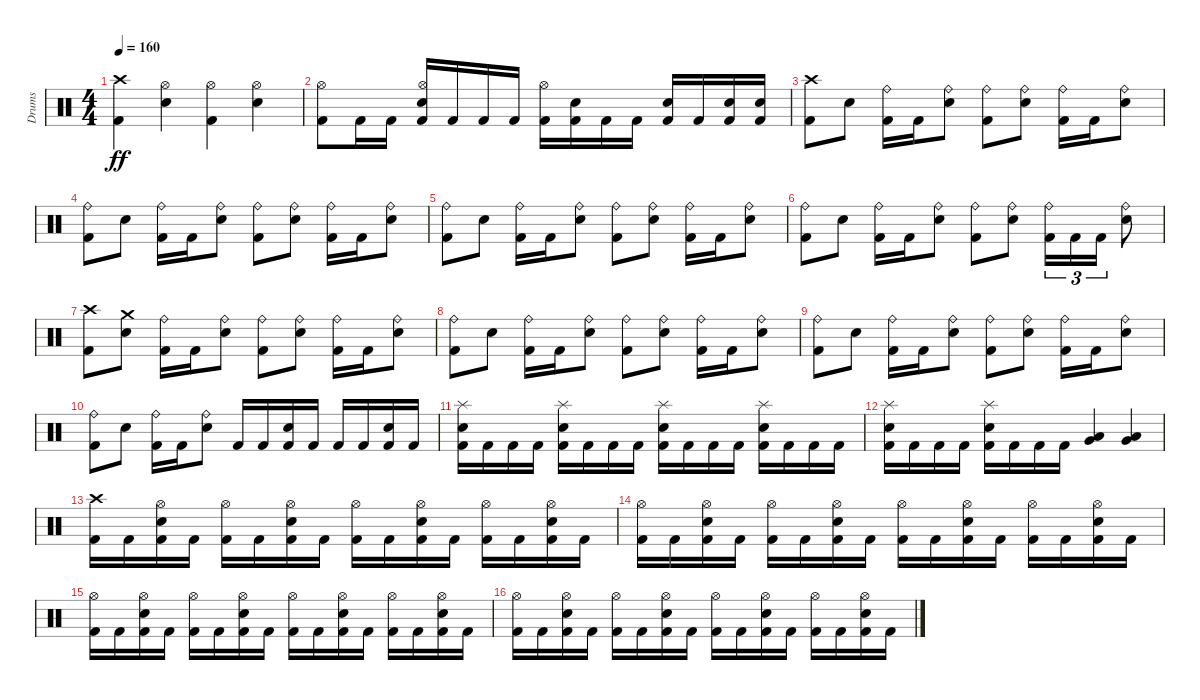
\track ("Drums" "Drums") {instrument percussion}
\staff {score}
\articulation defaults
\ts (4 4)
\tempo 160
\clef neutral
\ks c
("Crash high (hit)" "Kick (hit) 2").4{dy ff} ("Hi-Hat (open)" "Electric Snare (hit)").4 ("Hi-Hat (open)" "Kick (hit) 2").4 ("Hi-Hat (open)" "Electric Snare (hit)").4 |
("Hi-Hat (open)" "Kick (hit) 2").8 "Kick (hit) 2".16 "Kick (hit) 2".16 ("Hi-Hat (open)" "Electric Snare (hit)" "Kick (hit) 2").16 "Kick (hit) 2".16 "Kick (hit) 2".16 "Kick (hit) 2".16 ("Hi-Hat (open)" "Kick (hit) 2").16 ("Electric Snare (hit)" "Kick (hit) 2").16 "Kick (hit) 2".16 "Kick (hit) 2".16 ("Electric Snare (hit)" "Kick (hit) 2").16 "Kick (hit) 2".16 ("Electric Snare (hit)" "Kick (hit) 2").16 ("Electric Snare (hit)" "Kick (hit) 2").16 |
("Crash high (hit)" "Kick (hit) 2").8 "Electric Snare (hit)".8 ("Ride (bell)" "Kick (hit) 2").16 "Kick (hit) 2".16 ("Ride (bell)" "Electric Snare (hit)").8 ("Ride (bell)" "Kick (hit) 2").8 ("Ride (bell)" "Electric Snare (hit)").8 ("Ride (bell)" "Kick (hit) 2").16 "Kick (hit) 2".16 ("Ride (bell)" "Electric Snare (hit)").8 |
("Ride (bell)" "Kick (hit) 2").8 "Electric Snare (hit)".8 ("Ride (bell)" "Kick (hit) 2").16 "Kick (hit) 2".16 ("Ride (bell)" "Electric Snare (hit)").8 ("Ride (bell)" "Kick (hit) 2").8 ("Ride (bell)" "Electric Snare (hit)").8 ("Ride (bell)" "Kick (hit) 2").16 "Kick (hit) 2".16 ("Ride (bell)" "Electric Snare (hit)").8 |
("Ride (bell)" "Kick (hit) 2").8 "Electric Snare (hit)".8 ("Ride (bell)" "Kick (hit) 2").16 "Kick (hit) 2".16 ("Ride (bell)" "Electric Snare (hit)").8 ("Ride (bell)" "Kick (hit) 2").8 ("Ride (bell)" "Electric Snare (hit)").8 ("Ride (bell)" "Kick (hit) 2").16 "Kick (hit) 2".16 ("Ride (bell)" "Electric Snare (hit)").8 |
("Ride (bell)" "Kick (hit) 2").8 "Electric Snare (hit)".8 ("Ride (bell)" "Kick (hit) 2").16 "Kick (hit) 2".16 ("Ride (bell)" "Electric Snare (hit)").8 ("Ride (bell)" "Kick (hit) 2").8 ("Ride (bell)" "Electric Snare (hit)").8 ("Ride (bell)" "Kick (hit) 2").16{tu (3 2)} "Kick (hit) 2".16{tu (3 2)} "Kick (hit) 2".16{tu (3 2)} ("Ride (bell)" "Electric Snare (hit)").8 |
("Crash high (hit)" "Kick (hit) 2").8 ("Crash medium (hit)" "Electric Snare (hit)").8 ("Ride (bell)" "Kick (hit) 2").16 "Kick (hit) 2".16 ("Ride (bell)" "Electric Snare (hit)").8 ("Ride (bell)" "Kick (hit) 2").8 ("Ride (bell)" "Electric Snare (hit)").8 ("Ride (bell)" "Kick (hit) 2").16 "Kick (hit) 2".16 ("Ride (bell)" "Electric Snare (hit)").8 |
("Ride (bell)" "Kick (hit) 2").8 "Electric Snare (hit)".8 ("Ride (bell)" "Kick (hit) 2").16 "Kick (hit) 2".16 ("Ride (bell)" "Electric Snare (hit)").8 ("Ride (bell)" "Kick (hit) 2").8 ("Ride (bell)" "Electric Snare (hit)").8 ("Ride (bell)" "Kick (hit) 2").16 "Kick (hit) 2".16 ("Ride (bell)" "Electric Snare (hit)").8 |
("Ride (bell)" "Kick (hit) 2").8 "Electric Snare (hit)".8 ("Ride (bell)" "Kick (hit) 2").16 "Kick (hit) 2".16 ("Ride (bell)" "Electric Snare (hit)").8 ("Ride (bell)" "Kick (hit) 2").8 ("Ride (bell)" "Electric Snare (hit)").8 ("Ride (bell)" "Kick (hit) 2").16 "Kick (hit) 2".16 ("Ride (bell)" "Electric Snare (hit)").8 |
("Ride (bell)" "Kick (hit) 2").8 "Electric Snare (hit)".8 ("Ride (bell)" "Kick (hit) 2").16 "Kick (hit) 2".16 ("Ride (bell)" "Electric Snare (hit)").8 "Kick (hit) 2".16 "Kick (hit) 2".16 ("Electric Snare (hit)" "Kick (hit) 2").16 "Kick (hit) 2".16 "Kick (hit) 2".16 "Kick (hit) 2".16 ("Electric Snare (hit)" "Kick (hit) 2").16 "Kick (hit) 2".16 |
("Splash (hit)" "Electric Snare (hit)" "Kick (hit) 2").16 "Kick (hit) 2".16 "Kick (hit) 2".16 "Kick (hit) 2".16 ("Splash (hit)" "Electric Snare (hit)" "Kick (hit) 2").16 "Kick (hit) 2".16 "Kick (hit) 2".16 "Kick (hit) 2".16 ("Splash (hit)" "Electric Snare (hit)" "Kick (hit) 2").16 "Kick (hit) 2".16 "Kick (hit) 2".16 "Kick (hit) 2".16 ("Splash (hit)" "Electric Snare (hit)" "Kick (hit) 2").16 "Kick (hit) 2".16 "Kick (hit) 2".16 "Kick (hit) 2".16 |
("Splash (hit)" "Electric Snare (hit)" "Kick (hit) 2").16 "Kick (hit) 2".16 "Kick (hit) 2".16 "Kick (hit) 2".16 ("Splash (hit)" "Electric Snare (hit)" "Kick (hit) 2").16 "Kick (hit) 2".16 "Kick (hit) 2".16 "Kick (hit) 2".16 ("Very Low Tom (hit)" "Low Tom (hit)").4 ("Very Low Tom (hit)" "Low Tom (hit)").4 |
("Crash high (hit)" "Kick (hit) 2").16 "Kick (hit) 2".16 ("Hi-Hat (open)" "Electric Snare (hit)" "Kick (hit) 2").16 "Kick (hit) 2".16 ("Hi-Hat (open)" "Kick (hit) 2").16 "Kick (hit) 2".16 ("Hi-Hat (open)" "Electric Snare (hit)" "Kick (hit) 2").16 "Kick (hit) 2".16 ("Hi-Hat (open)" "Kick (hit) 2").16 "Kick (hit) 2".16 ("Hi-Hat (open)" "Electric Snare (hit)" "Kick (hit) 2").16 "Kick (hit) 2".16 ("Hi-Hat (open)" "Kick (hit) 2").16 "Kick (hit) 2".16 ("Hi-Hat (open)" "Electric Snare (hit)" "Kick (hit) 2").16 "Kick (hit) 2".16 |
("Hi-Hat (open)" "Kick (hit) 2").16 "Kick (hit) 2".16 ("Hi-Hat (open)" "Electric Snare (hit)" "Kick (hit) 2").16 "Kick (hit) 2".16 ("Hi-Hat (open)" "Kick (hit) 2").16 "Kick (hit) 2".16 ("Hi-Hat (open)" "Electric Snare (hit)" "Kick (hit) 2").16 "Kick (hit) 2".16 ("Hi-Hat (open)" "Kick (hit) 2").16 "Kick (hit) 2".16 ("Hi-Hat (open)" "Electric Snare (hit)" "Kick (hit) 2").16 "Kick (hit) 2".16 ("Hi-Hat (open)" "Kick (hit) 2").16 "Kick (hit) 2".16 ("Hi-Hat (open)" "Electric Snare (hit)" "Kick (hit) 2").16 "Kick (hit) 2".16 |
("Hi-Hat (open)" "Kick (hit) 2").16 "Kick (hit) 2".16 ("Hi-Hat (open)" "Electric Snare (hit)" "Kick (hit) 2").16 "Kick (hit) 2".16 ("Hi-Hat (open)" "Kick (hit) 2").16 "Kick (hit) 2".16 ("Hi-Hat (open)" "Electric Snare (hit)" "Kick (hit) 2").16 "Kick (hit) 2".16 ("Hi-Hat (open)" "Kick (hit) 2").16 "Kick (hit) 2".16 ("Hi-Hat (open)" "Electric Snare (hit)" "Kick (hit) 2").16 "Kick (hit) 2".16 ("Hi-Hat (open)" "Kick (hit) 2").16 "Kick (hit) 2".16 ("Hi-Hat (open)" "Electric Snare (hit)" "Kick (hit) 2").16 "Kick (hit) 2".16 |
("Hi-Hat (open)" "Kick (hit) 2").16 "Kick (hit) 2".16 ("Hi-Hat (open)" "Electric Snare (hit)" "Kick (hit) 2").16 "Kick (hit) 2".16 ("Hi-Hat (open)" "Kick (hit) 2").16 "Kick (hit) 2".16 ("Hi-Hat (open)" "Electric Snare (hit)" "Kick (hit) 2").16 "Kick (hit) 2".16 ("Hi-Hat (open)" "Kick (hit) 2").16 "Kick (hit) 2".16 ("Hi-Hat (open)" "Electric Snare (hit)" "Kick (hit) 2").16 "Kick (hit) 2".16 ("Hi-Hat (open)" "Kick (hit) 2").16 "Kick (hit) 2".16 ("Hi-Hat (open)" "Electric Snare (hit)" "Kick (hit) 2").16 "Kick (hit) 2".16
